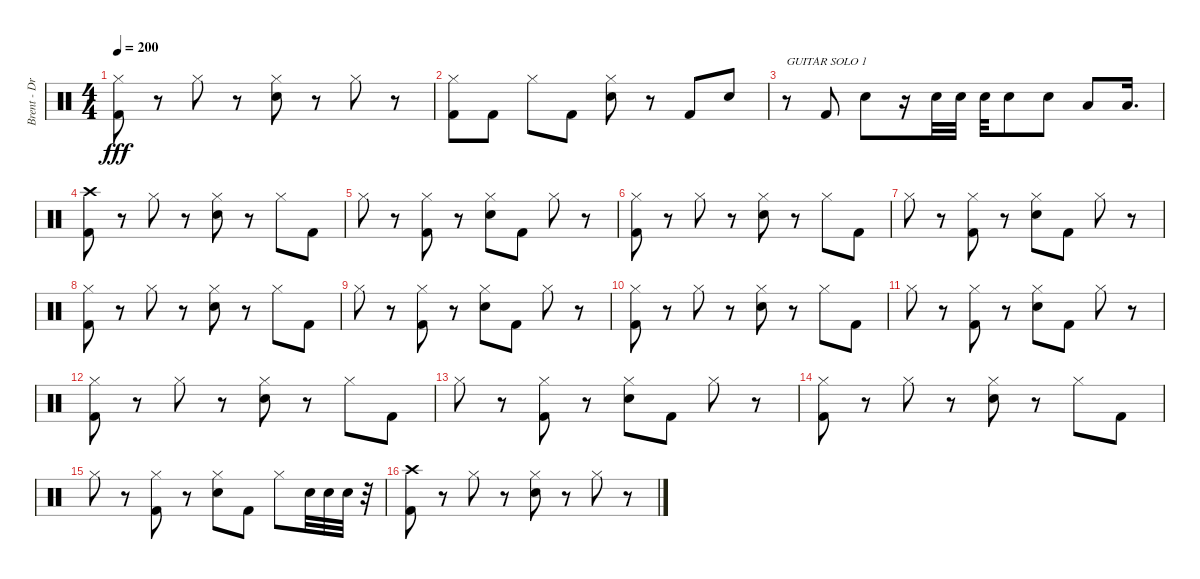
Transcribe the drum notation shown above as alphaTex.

\track ("Brent - Drums" "Brent - Dr") {instrument percussion}
\staff {score}
\articulation defaults
\ts (4 4)
\tempo 200
\clef neutral
\ks c
("Hi-Hat (closed)" "Kick (hit) 2").8{dy fff} r.8 "Hi-Hat (closed)".8 r.8 ("Hi-Hat (closed)" "Snare (hit) 2").8 r.8 "Hi-Hat (closed)".8 r.8 |
("Hi-Hat (closed)" "Kick (hit) 2").8 "Kick (hit) 2".8 "Hi-Hat (closed)".8 "Kick (hit) 2".8 ("Hi-Hat (closed)" "Snare (hit) 2").8 r.8 "Kick (hit) 2".8 "Snare (hit) 2".8 |
r.8{txt "GUITAR SOLO 1"} "Kick (hit) 2".8 "Snare (hit) 2".8 r.16 "Snare (hit) 2".32 "Snare (hit) 2".32 "Snare (hit) 2".32 "Snare (hit) 2".8 "Snare (hit) 2".8 "Low Tom (hit)".8 "Low Tom (hit)".16{d} |
("Crash high (hit)" "Kick (hit) 2").8 r.8 "Hi-Hat (closed)".8 r.8 ("Hi-Hat (closed)" "Snare (hit) 2").8 r.8 "Hi-Hat (closed)".8 "Kick (hit) 2".8 |
"Hi-Hat (closed)".8 r.8 ("Hi-Hat (closed)" "Kick (hit) 2").8 r.8 ("Hi-Hat (closed)" "Snare (hit) 2").8 "Kick (hit) 2".8 "Hi-Hat (closed)".8 r.8 |
("Hi-Hat (closed)" "Kick (hit) 2").8 r.8 "Hi-Hat (closed)".8 r.8 ("Hi-Hat (closed)" "Snare (hit) 2").8 r.8 "Hi-Hat (closed)".8 "Kick (hit) 2".8 |
"Hi-Hat (closed)".8 r.8 ("Hi-Hat (closed)" "Kick (hit) 2").8 r.8 ("Hi-Hat (closed)" "Snare (hit) 2").8 "Kick (hit) 2".8 "Hi-Hat (closed)".8 r.8 |
("Hi-Hat (closed)" "Kick (hit) 2").8 r.8 "Hi-Hat (closed)".8 r.8 ("Hi-Hat (closed)" "Snare (hit) 2").8 r.8 "Hi-Hat (closed)".8 "Kick (hit) 2".8 |
"Hi-Hat (closed)".8 r.8 ("Hi-Hat (closed)" "Kick (hit) 2").8 r.8 ("Hi-Hat (closed)" "Snare (hit) 2").8 "Kick (hit) 2".8 "Hi-Hat (closed)".8 r.8 |
("Hi-Hat (closed)" "Kick (hit) 2").8 r.8 "Hi-Hat (closed)".8 r.8 ("Hi-Hat (closed)" "Snare (hit) 2").8 r.8 "Hi-Hat (closed)".8 "Kick (hit) 2".8 |
"Hi-Hat (closed)".8 r.8 ("Hi-Hat (closed)" "Kick (hit) 2").8 r.8 ("Hi-Hat (closed)" "Snare (hit) 2").8 "Kick (hit) 2".8 "Hi-Hat (closed)".8 r.8 |
("Hi-Hat (closed)" "Kick (hit) 2").8 r.8 "Hi-Hat (closed)".8 r.8 ("Hi-Hat (closed)" "Snare (hit) 2").8 r.8 "Hi-Hat (closed)".8 "Kick (hit) 2".8 |
"Hi-Hat (closed)".8 r.8 ("Hi-Hat (closed)" "Kick (hit) 2").8 r.8 ("Hi-Hat (closed)" "Snare (hit) 2").8 "Kick (hit) 2".8 "Hi-Hat (closed)".8 r.8 |
("Hi-Hat (closed)" "Kick (hit) 2").8 r.8 "Hi-Hat (closed)".8 r.8 ("Hi-Hat (closed)" "Snare (hit) 2").8 r.8 "Hi-Hat (closed)".8 "Kick (hit) 2".8 |
"Hi-Hat (closed)".8 r.8 ("Hi-Hat (closed)" "Kick (hit) 2").8 r.8 ("Hi-Hat (closed)" "Snare (hit) 2").8 "Kick (hit) 2".8 "Hi-Hat (closed)".8 "Snare (hit) 2".32 "Snare (hit) 2".32 "Snare (hit) 2".32 r.32 |
("Crash high (hit)" "Kick (hit) 2").8 r.8 "Hi-Hat (closed)".8 r.8 ("Hi-Hat (closed)" "Snare (hit) 2").8 r.8 "Hi-Hat (closed)".8 r.8
